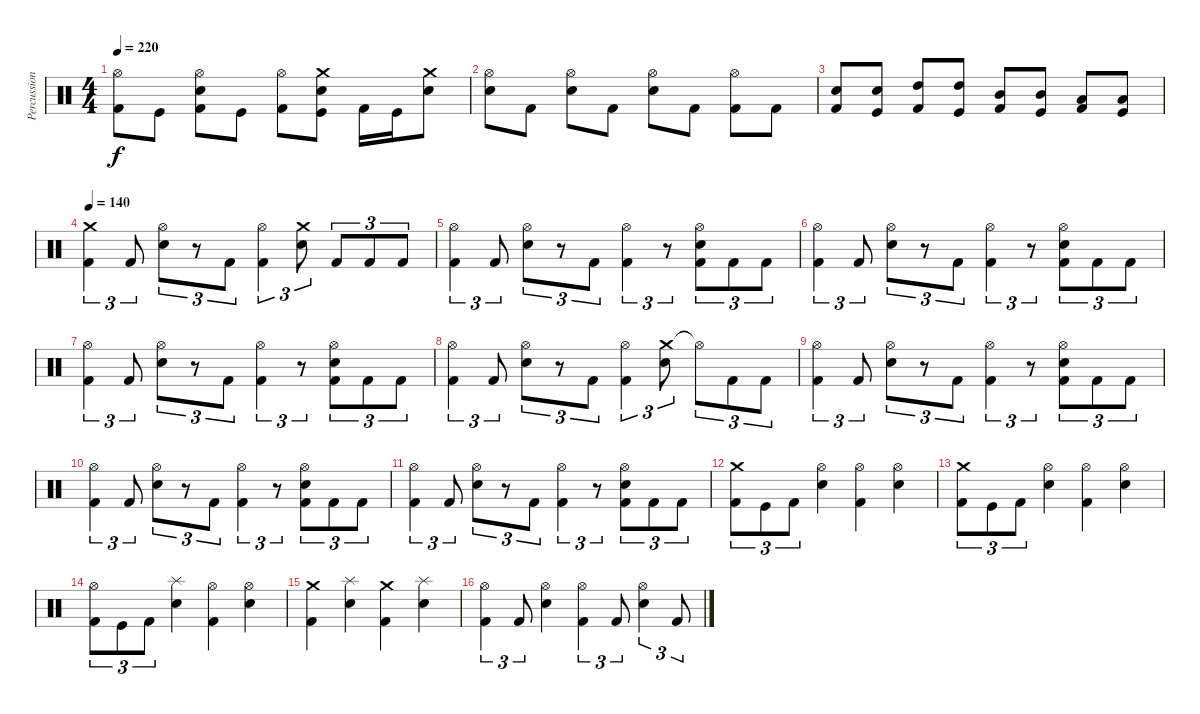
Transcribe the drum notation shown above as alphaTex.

\track ("Percussions" "Percussion") {instrument percussion}
\staff {score}
\articulation defaults
\ts (4 4)
\tempo 220
\clef neutral
\ks c
("Hi-Hat (open)" "Kick (hit) 2").8{dy f} "Kick (hit)".8 ("Hi-Hat (open)" "Electric Snare (hit)" "Kick (hit) 2").8 "Kick (hit)".8 ("Hi-Hat (open)" "Kick (hit) 2").8 ("Crash medium (hit)" "Electric Snare (hit)" "Kick (hit)").8 "Kick (hit) 2".16 "Kick (hit)".16 ("Crash medium (hit)" "Electric Snare (hit)").8 |
("Hi-Hat (open)" "Electric Snare (hit)").8 "Kick (hit) 2".8 ("Hi-Hat (open)" "Electric Snare (hit)").8 "Kick (hit) 2".8 ("Hi-Hat (open)" "Electric Snare (hit)").8 "Kick (hit) 2".8 ("Hi-Hat (open)" "Kick (hit) 2").8 "Kick (hit) 2".8 |
("Electric Snare (hit)" "Kick (hit) 2").8 ("Electric Snare (hit)" "Kick (hit)").8 ("High Tom (hit)" "Kick (hit) 2").8 ("High Tom (hit)" "Kick (hit)").8 ("Mid Tom (hit)" "Kick (hit) 2").8 ("Mid Tom (hit)" "Kick (hit)").8 ("Low Tom (hit)" "Kick (hit) 2").8 ("Low Tom (hit)" "Kick (hit)").8 |
\tempo 140
("Crash medium (hit)" "Kick (hit) 2").4{tu (3 2)} "Kick (hit) 2".8{tu (3 2)} ("Hi-Hat (open)" "Electric Snare (hit)").8{tu (3 2)} r.8{tu (3 2)} "Kick (hit) 2".8{tu (3 2)} ("Hi-Hat (open)" "Kick (hit) 2").4{tu (3 2)} ("Crash medium (hit)" "Electric Snare (hit)").8{tu (3 2)} "Kick (hit) 2".8{tu (3 2)} "Kick (hit) 2".8{tu (3 2)} "Kick (hit) 2".8{tu (3 2)} |
("Hi-Hat (open)" "Kick (hit) 2").4{tu (3 2)} "Kick (hit) 2".8{tu (3 2)} ("Hi-Hat (open)" "Electric Snare (hit)").8{tu (3 2)} r.8{tu (3 2)} "Kick (hit) 2".8{tu (3 2)} ("Hi-Hat (open)" "Kick (hit) 2").4{tu (3 2)} r.8{tu (3 2)} ("Hi-Hat (open)" "Electric Snare (hit)" "Kick (hit) 2").8{tu (3 2)} "Kick (hit) 2".8{tu (3 2)} "Kick (hit) 2".8{tu (3 2)} |
("Hi-Hat (open)" "Kick (hit) 2").4{tu (3 2)} "Kick (hit) 2".8{tu (3 2)} ("Hi-Hat (open)" "Electric Snare (hit)").8{tu (3 2)} r.8{tu (3 2)} "Kick (hit) 2".8{tu (3 2)} ("Hi-Hat (open)" "Kick (hit) 2").4{tu (3 2)} r.8{tu (3 2)} ("Hi-Hat (open)" "Electric Snare (hit)" "Kick (hit) 2").8{tu (3 2)} "Kick (hit) 2".8{tu (3 2)} "Kick (hit) 2".8{tu (3 2)} |
("Hi-Hat (open)" "Kick (hit) 2").4{tu (3 2)} "Kick (hit) 2".8{tu (3 2)} ("Hi-Hat (open)" "Electric Snare (hit)").8{tu (3 2)} r.8{tu (3 2)} "Kick (hit) 2".8{tu (3 2)} ("Hi-Hat (open)" "Kick (hit) 2").4{tu (3 2)} r.8{tu (3 2)} ("Hi-Hat (open)" "Electric Snare (hit)" "Kick (hit) 2").8{tu (3 2)} "Kick (hit) 2".8{tu (3 2)} "Kick (hit) 2".8{tu (3 2)} |
("Hi-Hat (open)" "Kick (hit) 2").4{tu (3 2)} "Kick (hit) 2".8{tu (3 2)} ("Hi-Hat (open)" "Electric Snare (hit)").8{tu (3 2)} r.8{tu (3 2)} "Kick (hit) 2".8{tu (3 2)} ("Hi-Hat (open)" "Kick (hit) 2").4{tu (3 2)} ("Crash medium (hit)" "Electric Snare (hit)").8{tu (3 2)} "Hi-Hat (open)"{t}.8{tu (3 2)} "Kick (hit) 2".8{tu (3 2)} "Kick (hit) 2".8{tu (3 2)} |
("Hi-Hat (open)" "Kick (hit) 2").4{tu (3 2)} "Kick (hit) 2".8{tu (3 2)} ("Hi-Hat (open)" "Electric Snare (hit)").8{tu (3 2)} r.8{tu (3 2)} "Kick (hit) 2".8{tu (3 2)} ("Hi-Hat (open)" "Kick (hit) 2").4{tu (3 2)} r.8{tu (3 2)} ("Hi-Hat (open)" "Electric Snare (hit)" "Kick (hit) 2").8{tu (3 2)} "Kick (hit) 2".8{tu (3 2)} "Kick (hit) 2".8{tu (3 2)} |
("Hi-Hat (open)" "Kick (hit) 2").4{tu (3 2)} "Kick (hit) 2".8{tu (3 2)} ("Hi-Hat (open)" "Electric Snare (hit)").8{tu (3 2)} r.8{tu (3 2)} "Kick (hit) 2".8{tu (3 2)} ("Hi-Hat (open)" "Kick (hit) 2").4{tu (3 2)} r.8{tu (3 2)} ("Hi-Hat (open)" "Electric Snare (hit)" "Kick (hit) 2").8{tu (3 2)} "Kick (hit) 2".8{tu (3 2)} "Kick (hit) 2".8{tu (3 2)} |
("Hi-Hat (open)" "Kick (hit) 2").4{tu (3 2)} "Kick (hit) 2".8{tu (3 2)} ("Hi-Hat (open)" "Electric Snare (hit)").8{tu (3 2)} r.8{tu (3 2)} "Kick (hit) 2".8{tu (3 2)} ("Hi-Hat (open)" "Kick (hit) 2").4{tu (3 2)} r.8{tu (3 2)} ("Hi-Hat (open)" "Electric Snare (hit)" "Kick (hit) 2").8{tu (3 2)} "Kick (hit) 2".8{tu (3 2)} "Kick (hit) 2".8{tu (3 2)} |
("Crash medium (hit)" "Kick (hit) 2").8{tu (3 2)} "Kick (hit)".8{tu (3 2)} "Kick (hit) 2".8{tu (3 2)} ("Hi-Hat (open)" "Electric Snare (hit)").4 ("Hi-Hat (open)" "Kick (hit) 2").4 ("Hi-Hat (open)" "Electric Snare (hit)").4 |
("Crash medium (hit)" "Kick (hit) 2").8{tu (3 2)} "Kick (hit)".8{tu (3 2)} "Kick (hit) 2".8{tu (3 2)} ("Hi-Hat (open)" "Electric Snare (hit)").4 ("Hi-Hat (open)" "Kick (hit) 2").4 ("Hi-Hat (open)" "Electric Snare (hit)").4 |
("Hi-Hat (open)" "Kick (hit) 2").8{tu (3 2)} "Kick (hit)".8{tu (3 2)} "Kick (hit) 2".8{tu (3 2)} ("Splash (hit)" "Electric Snare (hit)").4 ("Hi-Hat (open)" "Kick (hit) 2").4 ("Hi-Hat (open)" "Electric Snare (hit)").4 |
("Crash medium (hit)" "Kick (hit) 2").4 ("Splash (hit)" "Electric Snare (hit)").4 ("Crash medium (hit)" "Kick (hit) 2").4 ("Splash (hit)" "Electric Snare (hit)").4 |
("Hi-Hat (open)" "Kick (hit) 2").4{tu (3 2)} "Kick (hit) 2".8{tu (3 2)} ("Hi-Hat (open)" "Electric Snare (hit)").4 ("Hi-Hat (open)" "Kick (hit) 2").4{tu (3 2)} "Kick (hit) 2".8{tu (3 2)} ("Hi-Hat (open)" "Electric Snare (hit)").4{tu (3 2)} "Kick (hit) 2".8{tu (3 2)}
